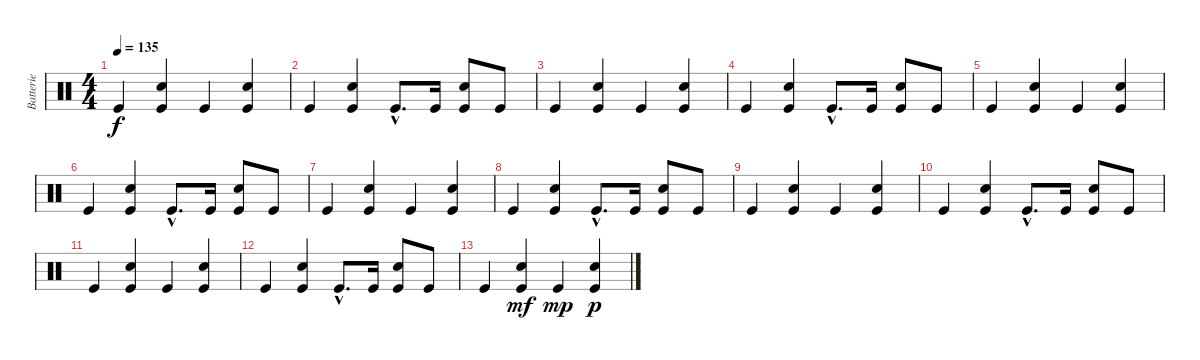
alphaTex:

\track ("Batterie" "Batterie") {instrument percussion}
\staff {score}
\articulation defaults
\ts (4 4)
\tempo 135
\clef neutral
\ks c "Kick (hit)".4{dy f}
("Electric Snare (hit)" "Kick (hit)").4 "Kick (hit)".4 ("Electric Snare (hit)" "Kick (hit)").4 |
"Kick (hit)".4 ("Electric Snare (hit)" "Kick (hit)").4 "Kick (hit)"{hac}.8{d} "Kick (hit)".16 ("Electric Snare (hit)" "Kick (hit)").8 "Kick (hit)".8 |
"Kick (hit)".4 ("Electric Snare (hit)" "Kick (hit)").4 "Kick (hit)".4 ("Electric Snare (hit)" "Kick (hit)").4 |
"Kick (hit)".4 ("Electric Snare (hit)" "Kick (hit)").4 "Kick (hit)"{hac}.8{d} "Kick (hit)".16 ("Electric Snare (hit)" "Kick (hit)").8 "Kick (hit)".8 |
"Kick (hit)".4 ("Electric Snare (hit)" "Kick (hit)").4 "Kick (hit)".4 ("Electric Snare (hit)" "Kick (hit)").4 |
"Kick (hit)".4 ("Electric Snare (hit)" "Kick (hit)").4 "Kick (hit)"{hac}.8{d} "Kick (hit)".16 ("Electric Snare (hit)" "Kick (hit)").8 "Kick (hit)".8 |
"Kick (hit)".4 ("Electric Snare (hit)" "Kick (hit)").4 "Kick (hit)".4 ("Electric Snare (hit)" "Kick (hit)").4 |
"Kick (hit)".4 ("Electric Snare (hit)" "Kick (hit)").4 "Kick (hit)"{hac}.8{d} "Kick (hit)".16 ("Electric Snare (hit)" "Kick (hit)").8 "Kick (hit)".8 |
"Kick (hit)".4 ("Electric Snare (hit)" "Kick (hit)").4 "Kick (hit)".4 ("Electric Snare (hit)" "Kick (hit)").4 |
"Kick (hit)".4 ("Electric Snare (hit)" "Kick (hit)").4 "Kick (hit)"{hac}.8{d} "Kick (hit)".16 ("Electric Snare (hit)" "Kick (hit)").8 "Kick (hit)".8 |
"Kick (hit)".4 ("Electric Snare (hit)" "Kick (hit)").4 "Kick (hit)".4 ("Electric Snare (hit)" "Kick (hit)").4 |
"Kick (hit)".4 ("Electric Snare (hit)" "Kick (hit)").4 "Kick (hit)"{hac}.8{d} "Kick (hit)".16 ("Electric Snare (hit)" "Kick (hit)").8 "Kick (hit)".8 |
"Kick (hit)".4 ("Electric Snare (hit)" "Kick (hit)").4{dy mf} "Kick (hit)".4{dy mp} ("Electric Snare (hit)" "Kick (hit)").4{dy p}
